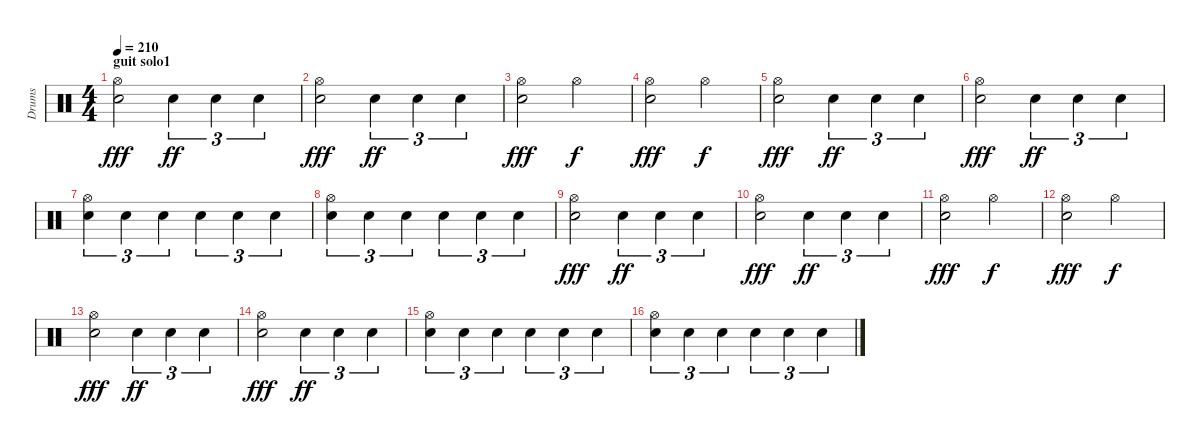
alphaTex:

\track ("Drums" "Drums") {instrument percussion}
\staff {score}
\articulation defaults
\ts (4 4)
\section ("" "guit solo1")
\tempo 210
\clef neutral
\ks c
("Electric Snare (hit)" "Hi-Hat (open)").2{dy fff} "Electric Snare (hit)".4{tu (3 2) dy ff} "Electric Snare (hit)".4{tu (3 2)} "Electric Snare (hit)".4{tu (3 2)} |
("Electric Snare (hit)" "Hi-Hat (open)").2{dy fff} "Electric Snare (hit)".4{tu (3 2) dy ff} "Electric Snare (hit)".4{tu (3 2)} "Electric Snare (hit)".4{tu (3 2)} |
("Electric Snare (hit)" "Hi-Hat (open)").2{dy fff} "Hi-Hat (open)".2{dy f} |
("Electric Snare (hit)" "Hi-Hat (open)").2{dy fff} "Hi-Hat (open)".2{dy f} |
("Electric Snare (hit)" "Hi-Hat (open)").2{dy fff} "Electric Snare (hit)".4{tu (3 2) dy ff} "Electric Snare (hit)".4{tu (3 2)} "Electric Snare (hit)".4{tu (3 2)} |
("Electric Snare (hit)" "Hi-Hat (open)").2{dy fff} "Electric Snare (hit)".4{tu (3 2) dy ff} "Electric Snare (hit)".4{tu (3 2)} "Electric Snare (hit)".4{tu (3 2)} |
("Electric Snare (hit)" "Hi-Hat (open)").4{tu (3 2)} "Electric Snare (hit)".4{tu (3 2)} "Electric Snare (hit)".4{tu (3 2)} "Electric Snare (hit)".4{tu (3 2)} "Electric Snare (hit)".4{tu (3 2)} "Electric Snare (hit)".4{tu (3 2)} |
("Electric Snare (hit)" "Hi-Hat (open)").4{tu (3 2)} "Electric Snare (hit)".4{tu (3 2)} "Electric Snare (hit)".4{tu (3 2)} "Electric Snare (hit)".4{tu (3 2)} "Electric Snare (hit)".4{tu (3 2)} "Electric Snare (hit)".4{tu (3 2)} |
("Electric Snare (hit)" "Hi-Hat (open)").2{dy fff} "Electric Snare (hit)".4{tu (3 2) dy ff} "Electric Snare (hit)".4{tu (3 2)} "Electric Snare (hit)".4{tu (3 2)} |
("Electric Snare (hit)" "Hi-Hat (open)").2{dy fff} "Electric Snare (hit)".4{tu (3 2) dy ff} "Electric Snare (hit)".4{tu (3 2)} "Electric Snare (hit)".4{tu (3 2)} |
("Electric Snare (hit)" "Hi-Hat (open)").2{dy fff} "Hi-Hat (open)".2{dy f} |
("Electric Snare (hit)" "Hi-Hat (open)").2{dy fff} "Hi-Hat (open)".2{dy f} |
("Electric Snare (hit)" "Hi-Hat (open)").2{dy fff} "Electric Snare (hit)".4{tu (3 2) dy ff} "Electric Snare (hit)".4{tu (3 2)} "Electric Snare (hit)".4{tu (3 2)} |
("Electric Snare (hit)" "Hi-Hat (open)").2{dy fff} "Electric Snare (hit)".4{tu (3 2) dy ff} "Electric Snare (hit)".4{tu (3 2)} "Electric Snare (hit)".4{tu (3 2)} |
("Electric Snare (hit)" "Hi-Hat (open)").4{tu (3 2)} "Electric Snare (hit)".4{tu (3 2)} "Electric Snare (hit)".4{tu (3 2)} "Electric Snare (hit)".4{tu (3 2)} "Electric Snare (hit)".4{tu (3 2)} "Electric Snare (hit)".4{tu (3 2)} |
("Electric Snare (hit)" "Hi-Hat (open)").4{tu (3 2)} "Electric Snare (hit)".4{tu (3 2)} "Electric Snare (hit)".4{tu (3 2)} "Electric Snare (hit)".4{tu (3 2)} "Electric Snare (hit)".4{tu (3 2)} "Electric Snare (hit)".4{tu (3 2)}
